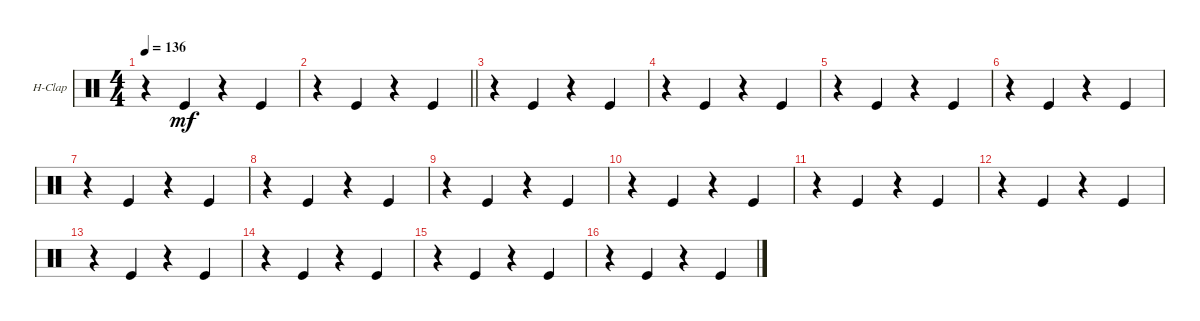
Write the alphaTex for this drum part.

\defaultSystemsLayout 4
\bracketExtendMode groupsimilarinstruments
\firstSystemTrackNameOrientation horizontal
\otherSystemsTrackNameOrientation horizontal
\track ("Hand Clap" "H-Clap") {instrument percussion}
\staff {score}
\articulation defaults
\ts (4 4)
\tempo 136
\clef neutral
\scale
0.333333
\ks c
r.4{dy mf} "Kick (hit)".4 r.4 "Kick (hit)".4 |
\scale
0.333333
\barLineRight lightlight
r.4 "Kick (hit)".4 r.4 "Kick (hit)".4 |
\scale
0.333333 r.4 "Kick (hit)".4 r.4 "Kick (hit)".4 |
\scale
0.333333 r.4 "Kick (hit)".4 r.4 "Kick (hit)".4 |
\scale
0.333333 r.4 "Kick (hit)".4 r.4 "Kick (hit)".4 |
\scale
0.333333 r.4 "Kick (hit)".4 r.4 "Kick (hit)".4 |
\scale
0.333333 r.4 "Kick (hit)".4 r.4 "Kick (hit)".4 |
\scale
0.333333 r.4 "Kick (hit)".4 r.4 "Kick (hit)".4 |
\scale
0.333333 r.4 "Kick (hit)".4 r.4 "Kick (hit)".4 |
\scale
0.333333 r.4 "Kick (hit)".4 r.4 "Kick (hit)".4 |
\scale
0.333333 r.4 "Kick (hit)".4 r.4 "Kick (hit)".4 |
\scale
0.333333 r.4 "Kick (hit)".4 r.4 "Kick (hit)".4 |
\scale
0.333333 r.4 "Kick (hit)".4 r.4 "Kick (hit)".4 |
\scale
0.333333 r.4 "Kick (hit)".4 r.4 "Kick (hit)".4 |
\scale
0.333333 r.4 "Kick (hit)".4 r.4 "Kick (hit)".4 |
\scale
0.333333 r.4 "Kick (hit)".4 r.4 "Kick (hit)".4
